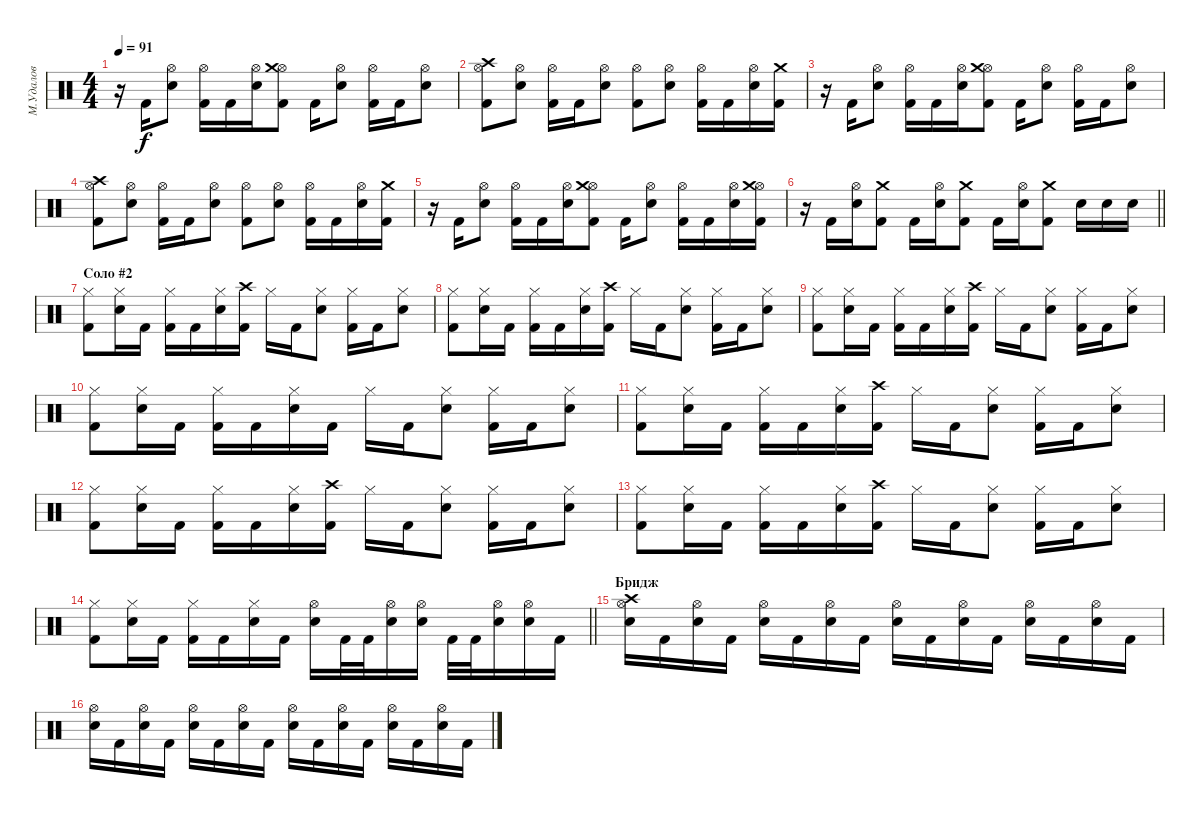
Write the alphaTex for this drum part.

\track ("М.Удалов" "М.Удалов") {instrument percussion}
\staff {score}
\articulation defaults
\ts (4 4)
\tempo 91
\clef neutral
\ks c
r.16{dy f} "Kick (hit) 2".16 ("Electric Snare (hit)" "Hi-Hat (open)").8 ("Kick (hit) 2" "Hi-Hat (open)").16 "Kick (hit) 2".16 ("Electric Snare (hit)" "Hi-Hat (open)").16 ("Kick (hit) 2" "Hi-Hat (open)" "Crash medium (hit)").8 "Kick (hit) 2".16 ("Electric Snare (hit)" "Hi-Hat (open)").8 ("Kick (hit) 2" "Hi-Hat (open)").16 "Kick (hit) 2".16 ("Electric Snare (hit)" "Hi-Hat (open)").8 |
("Kick (hit) 2" "Hi-Hat (open)" "Crash high (hit)").8 ("Electric Snare (hit)" "Hi-Hat (open)").8 ("Kick (hit) 2" "Hi-Hat (open)").16 "Kick (hit) 2".16 ("Electric Snare (hit)" "Hi-Hat (open)").8 ("Kick (hit) 2" "Hi-Hat (open)").8 ("Electric Snare (hit)" "Hi-Hat (open)").8 ("Kick (hit) 2" "Hi-Hat (open)").16 "Kick (hit) 2".16 ("Electric Snare (hit)" "Hi-Hat (open)").16 ("Kick (hit) 2" "Crash medium (hit)").16 |
r.16 "Kick (hit) 2".16 ("Electric Snare (hit)" "Hi-Hat (open)").8 ("Kick (hit) 2" "Hi-Hat (open)").16 "Kick (hit) 2".16 ("Electric Snare (hit)" "Hi-Hat (open)").16 ("Kick (hit) 2" "Hi-Hat (open)" "Crash medium (hit)").8 "Kick (hit) 2".16 ("Electric Snare (hit)" "Hi-Hat (open)").8 ("Kick (hit) 2" "Hi-Hat (open)").16 "Kick (hit) 2".16 ("Electric Snare (hit)" "Hi-Hat (open)").8 |
("Kick (hit) 2" "Hi-Hat (open)" "Crash high (hit)").8 ("Electric Snare (hit)" "Hi-Hat (open)").8 ("Kick (hit) 2" "Hi-Hat (open)").16 "Kick (hit) 2".16 ("Electric Snare (hit)" "Hi-Hat (open)").8 ("Kick (hit) 2" "Hi-Hat (open)").8 ("Electric Snare (hit)" "Hi-Hat (open)").8 ("Kick (hit) 2" "Hi-Hat (open)").16 "Kick (hit) 2".16 ("Electric Snare (hit)" "Hi-Hat (open)").16 ("Kick (hit) 2" "Crash medium (hit)").16 |
r.16 "Kick (hit) 2".16 ("Electric Snare (hit)" "Hi-Hat (open)").8 ("Kick (hit) 2" "Hi-Hat (open)").16 "Kick (hit) 2".16 ("Electric Snare (hit)" "Hi-Hat (open)").16 ("Kick (hit) 2" "Hi-Hat (open)" "Crash medium (hit)").8 "Kick (hit) 2".16 ("Electric Snare (hit)" "Hi-Hat (open)").8 ("Kick (hit) 2" "Hi-Hat (open)").16 "Kick (hit) 2".16 ("Electric Snare (hit)" "Hi-Hat (open)").16 ("Kick (hit) 2" "Hi-Hat (open)" "Crash medium (hit)").16 |
\barLineRight lightlight
r.16 "Kick (hit) 2".16 ("Electric Snare (hit)" "Hi-Hat (open)").16 ("Kick (hit) 2" "Crash medium (hit)").8 "Kick (hit) 2".16 ("Electric Snare (hit)" "Hi-Hat (open)").16 ("Kick (hit) 2" "Crash medium (hit)").8 "Kick (hit) 2".16 ("Electric Snare (hit)" "Hi-Hat (open)").16 ("Kick (hit) 2" "Crash medium (hit)").8 "Electric Snare (hit)".16 "Electric Snare (hit)".16 "Electric Snare (hit)".16 |
\section ("" "Соло #2")
("Kick (hit) 2" "Hi-Hat (closed)").8 ("Electric Snare (hit)" "Hi-Hat (closed)").16 "Kick (hit) 2".16 ("Kick (hit) 2" "Hi-Hat (closed)").16 "Kick (hit) 2".16 ("Electric Snare (hit)" "Hi-Hat (closed)").16 ("Kick (hit) 2" "Crash high (hit)").16 "Hi-Hat (closed)".16 "Kick (hit) 2".16 ("Electric Snare (hit)" "Hi-Hat (closed)").8 ("Kick (hit) 2" "Hi-Hat (closed)").16 "Kick (hit) 2".16 ("Electric Snare (hit)" "Hi-Hat (closed)").8 |
("Kick (hit) 2" "Hi-Hat (closed)").8 ("Electric Snare (hit)" "Hi-Hat (closed)").16 "Kick (hit) 2".16 ("Kick (hit) 2" "Hi-Hat (closed)").16 "Kick (hit) 2".16 ("Electric Snare (hit)" "Hi-Hat (closed)").16 ("Kick (hit) 2" "Crash high (hit)").16 "Hi-Hat (closed)".16 "Kick (hit) 2".16 ("Electric Snare (hit)" "Hi-Hat (closed)").8 ("Kick (hit) 2" "Hi-Hat (closed)").16 "Kick (hit) 2".16 ("Electric Snare (hit)" "Hi-Hat (closed)").8 |
("Kick (hit) 2" "Hi-Hat (closed)").8 ("Electric Snare (hit)" "Hi-Hat (closed)").16 "Kick (hit) 2".16 ("Kick (hit) 2" "Hi-Hat (closed)").16 "Kick (hit) 2".16 ("Electric Snare (hit)" "Hi-Hat (closed)").16 ("Kick (hit) 2" "Crash high (hit)").16 "Hi-Hat (closed)".16 "Kick (hit) 2".16 ("Electric Snare (hit)" "Hi-Hat (closed)").8 ("Kick (hit) 2" "Hi-Hat (closed)").16 "Kick (hit) 2".16 ("Electric Snare (hit)" "Hi-Hat (closed)").8 |
("Kick (hit) 2" "Hi-Hat (closed)").8 ("Electric Snare (hit)" "Hi-Hat (closed)").16 "Kick (hit) 2".16 ("Kick (hit) 2" "Hi-Hat (closed)").16 "Kick (hit) 2".16 ("Electric Snare (hit)" "Hi-Hat (closed)").16 "Kick (hit) 2".16 "Hi-Hat (closed)".16 "Kick (hit) 2".16 ("Electric Snare (hit)" "Hi-Hat (closed)").8 ("Kick (hit) 2" "Hi-Hat (closed)").16 "Kick (hit) 2".16 ("Electric Snare (hit)" "Hi-Hat (closed)").8 |
("Kick (hit) 2" "Hi-Hat (closed)").8 ("Electric Snare (hit)" "Hi-Hat (closed)").16 "Kick (hit) 2".16 ("Kick (hit) 2" "Hi-Hat (closed)").16 "Kick (hit) 2".16 ("Electric Snare (hit)" "Hi-Hat (closed)").16 ("Kick (hit) 2" "Crash high (hit)").16 "Hi-Hat (closed)".16 "Kick (hit) 2".16 ("Electric Snare (hit)" "Hi-Hat (closed)").8 ("Kick (hit) 2" "Hi-Hat (closed)").16 "Kick (hit) 2".16 ("Electric Snare (hit)" "Hi-Hat (closed)").8 |
("Kick (hit) 2" "Hi-Hat (closed)").8 ("Electric Snare (hit)" "Hi-Hat (closed)").16 "Kick (hit) 2".16 ("Kick (hit) 2" "Hi-Hat (closed)").16 "Kick (hit) 2".16 ("Electric Snare (hit)" "Hi-Hat (closed)").16 ("Kick (hit) 2" "Crash high (hit)").16 "Hi-Hat (closed)".16 "Kick (hit) 2".16 ("Electric Snare (hit)" "Hi-Hat (closed)").8 ("Kick (hit) 2" "Hi-Hat (closed)").16 "Kick (hit) 2".16 ("Electric Snare (hit)" "Hi-Hat (closed)").8 |
("Kick (hit) 2" "Hi-Hat (closed)").8 ("Electric Snare (hit)" "Hi-Hat (closed)").16 "Kick (hit) 2".16 ("Kick (hit) 2" "Hi-Hat (closed)").16 "Kick (hit) 2".16 ("Electric Snare (hit)" "Hi-Hat (closed)").16 ("Kick (hit) 2" "Crash high (hit)").16 "Hi-Hat (closed)".16 "Kick (hit) 2".16 ("Electric Snare (hit)" "Hi-Hat (closed)").8 ("Kick (hit) 2" "Hi-Hat (closed)").16 "Kick (hit) 2".16 ("Electric Snare (hit)" "Hi-Hat (closed)").8 |
\barLineRight lightlight
("Kick (hit) 2" "Hi-Hat (closed)").8 ("Electric Snare (hit)" "Hi-Hat (closed)").16 "Kick (hit) 2".16 ("Kick (hit) 2" "Hi-Hat (closed)").16 "Kick (hit) 2".16 ("Electric Snare (hit)" "Hi-Hat (closed)").16 "Kick (hit) 2".16 ("Electric Snare (hit)" "Hi-Hat (open)").16 "Kick (hit) 2".32 "Kick (hit) 2".32 ("Electric Snare (hit)" "Hi-Hat (open)").16 ("Electric Snare (hit)" "Hi-Hat (open)").16 "Kick (hit) 2".32 "Kick (hit) 2".32 ("Electric Snare (hit)" "Hi-Hat (open)").16 ("Electric Snare (hit)" "Hi-Hat (open)").16 "Kick (hit) 2".16 |
\section ("" "Бридж")
("Electric Snare (hit)" "Hi-Hat (open)" "Crash high (hit)").16 "Kick (hit) 2".16 ("Electric Snare (hit)" "Hi-Hat (open)").16 "Kick (hit) 2".16 ("Electric Snare (hit)" "Hi-Hat (open)").16 "Kick (hit) 2".16 ("Electric Snare (hit)" "Hi-Hat (open)").16 "Kick (hit) 2".16 ("Electric Snare (hit)" "Hi-Hat (open)").16 "Kick (hit) 2".16 ("Electric Snare (hit)" "Hi-Hat (open)").16 "Kick (hit) 2".16 ("Electric Snare (hit)" "Hi-Hat (open)").16 "Kick (hit) 2".16 ("Electric Snare (hit)" "Hi-Hat (open)").16 "Kick (hit) 2".16 |
("Electric Snare (hit)" "Hi-Hat (open)").16 "Kick (hit) 2".16 ("Electric Snare (hit)" "Hi-Hat (open)").16 "Kick (hit) 2".16 ("Electric Snare (hit)" "Hi-Hat (open)").16 "Kick (hit) 2".16 ("Electric Snare (hit)" "Hi-Hat (open)").16 "Kick (hit) 2".16 ("Electric Snare (hit)" "Hi-Hat (open)").16 "Kick (hit) 2".16 ("Electric Snare (hit)" "Hi-Hat (open)").16 "Kick (hit) 2".16 ("Electric Snare (hit)" "Hi-Hat (open)").16 "Kick (hit) 2".16 ("Electric Snare (hit)" "Hi-Hat (open)").16 "Kick (hit) 2".16
